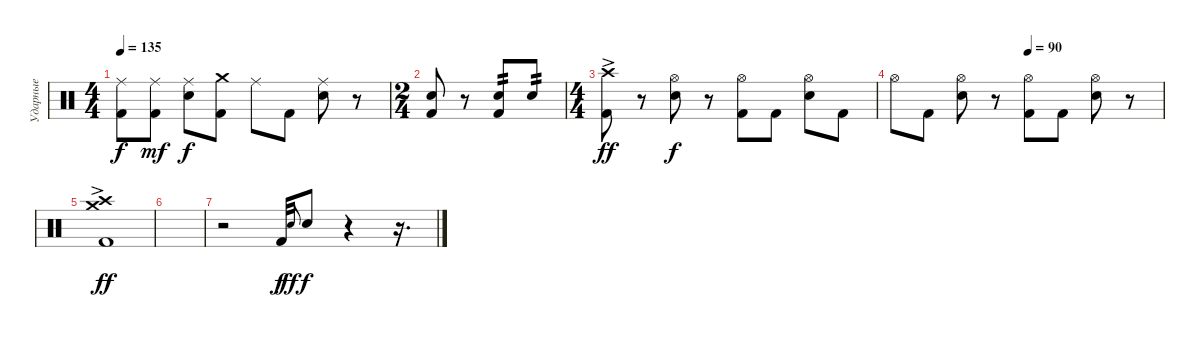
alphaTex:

\track ("Ударные" "Ударные") {instrument percussion}
\staff
\articulation defaults
\ts (4 4)
\tempo 135
\clef neutral
\ks c
("Ride (middle)" "Kick (hit) 2").8{dy f} ("Ride (middle)" "Kick (hit) 2").8{dy mf} ("Ride (middle)" "Electric Snare (hit)").8{dy f} ("Crash medium (hit)" "Kick (hit) 2").8 "Ride (middle)".8 "Kick (hit) 2".8 ("Ride (middle)" "Electric Snare (hit)").8 r.8 |
\ts (2 4)
("Electric Snare (hit)" "Kick (hit) 2").8 r.8 ("Electric Snare (hit)" "Kick (hit) 2").8{tp 2} "Electric Snare (hit)".8{tp 2} |
\ts (4 4)
("Crash high (hit)"{ac} "Kick (hit) 2").8{dy ff} r.8 ("Hi-Hat (open)" "Electric Snare (hit)").8{dy f} r.8 ("Hi-Hat (open)" "Kick (hit) 2").8 "Kick (hit) 2".8 ("Hi-Hat (open)" "Electric Snare (hit)").8 "Kick (hit) 2".8 |
\tempo (90 0.5)
"Hi-Hat (open)".8 "Kick (hit) 2".8 ("Hi-Hat (open)" "Electric Snare (hit)").8 r.8 ("Hi-Hat (open)" "Kick (hit) 2").8 "Kick (hit) 2".8 ("Hi-Hat (open)" "Electric Snare (hit)").8 r.8 |
("Crash medium (hit)"{ac} "Crash high (hit)" "Kick (hit) 2").1{dy ff} |
|
r.2 "Kick (hit) 2".32{dy f} "Electric Snare (hit)".8{gr onbeat dy ff} "Electric Snare (hit)".8{dy f} r.4 r.16{d}
